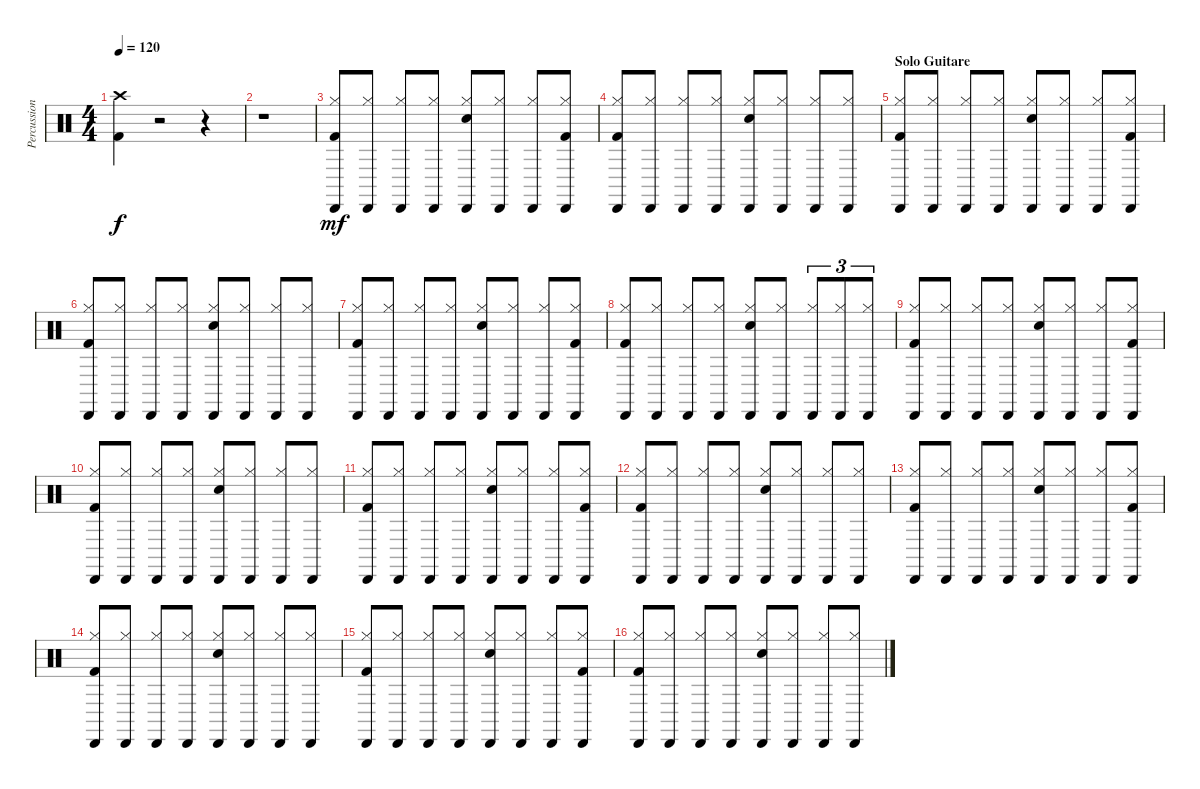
\track ("Percussions" "Percussion") {instrument percussion}
\staff {score}
\articulation defaults
\ts (4 4)
\tempo 120
\clef neutral
\ks c
("Crash high (hit)" "Kick (hit) 2").4{dy f} r.2 r.4 |
r.1 |
("Kick (hit) 2" "Cabasa (hit)" "Hi-Hat (closed)").8{dy mf} ("Cabasa (hit)" "Hi-Hat (closed)").8 ("Cabasa (hit)" "Hi-Hat (closed)").8 ("Cabasa (hit)" "Hi-Hat (closed)").8 ("Electric Snare (hit)" "Cabasa (hit)" "Hi-Hat (closed)").8 ("Cabasa (hit)" "Hi-Hat (closed)").8 ("Cabasa (hit)" "Hi-Hat (closed)").8 ("Kick (hit) 2" "Cabasa (hit)" "Hi-Hat (closed)").8 |
("Kick (hit) 2" "Cabasa (hit)" "Hi-Hat (closed)").8 ("Cabasa (hit)" "Hi-Hat (closed)").8 ("Cabasa (hit)" "Hi-Hat (closed)").8 ("Cabasa (hit)" "Hi-Hat (closed)").8 ("Electric Snare (hit)" "Cabasa (hit)" "Hi-Hat (closed)").8 ("Cabasa (hit)" "Hi-Hat (closed)").8 ("Cabasa (hit)" "Hi-Hat (closed)").8 ("Cabasa (hit)" "Hi-Hat (closed)").8 |
\section ("" "Solo Guitare")
("Kick (hit) 2" "Cabasa (hit)" "Hi-Hat (closed)").8 ("Cabasa (hit)" "Hi-Hat (closed)").8 ("Cabasa (hit)" "Hi-Hat (closed)").8 ("Cabasa (hit)" "Hi-Hat (closed)").8 ("Electric Snare (hit)" "Cabasa (hit)" "Hi-Hat (closed)").8 ("Cabasa (hit)" "Hi-Hat (closed)").8 ("Cabasa (hit)" "Hi-Hat (closed)").8 ("Kick (hit) 2" "Cabasa (hit)" "Hi-Hat (closed)").8 |
("Kick (hit) 2" "Cabasa (hit)" "Hi-Hat (closed)").8 ("Cabasa (hit)" "Hi-Hat (closed)").8 ("Cabasa (hit)" "Hi-Hat (closed)").8 ("Cabasa (hit)" "Hi-Hat (closed)").8 ("Electric Snare (hit)" "Cabasa (hit)" "Hi-Hat (closed)").8 ("Cabasa (hit)" "Hi-Hat (closed)").8 ("Cabasa (hit)" "Hi-Hat (closed)").8 ("Cabasa (hit)" "Hi-Hat (closed)").8 |
("Kick (hit) 2" "Cabasa (hit)" "Hi-Hat (closed)").8 ("Cabasa (hit)" "Hi-Hat (closed)").8 ("Cabasa (hit)" "Hi-Hat (closed)").8 ("Cabasa (hit)" "Hi-Hat (closed)").8 ("Electric Snare (hit)" "Cabasa (hit)" "Hi-Hat (closed)").8 ("Cabasa (hit)" "Hi-Hat (closed)").8 ("Cabasa (hit)" "Hi-Hat (closed)").8 ("Kick (hit) 2" "Cabasa (hit)" "Hi-Hat (closed)").8 |
("Kick (hit) 2" "Cabasa (hit)" "Hi-Hat (closed)").8 ("Cabasa (hit)" "Hi-Hat (closed)").8 ("Cabasa (hit)" "Hi-Hat (closed)").8 ("Cabasa (hit)" "Hi-Hat (closed)").8 ("Electric Snare (hit)" "Cabasa (hit)" "Hi-Hat (closed)").8 ("Cabasa (hit)" "Hi-Hat (closed)").8 ("Cabasa (hit)" "Hi-Hat (closed)").8{tu (3 2)} ("Cabasa (hit)" "Hi-Hat (closed)").8{tu (3 2)} ("Cabasa (hit)" "Hi-Hat (closed)").8{tu (3 2)} |
("Kick (hit) 2" "Cabasa (hit)" "Hi-Hat (closed)").8 ("Cabasa (hit)" "Hi-Hat (closed)").8 ("Cabasa (hit)" "Hi-Hat (closed)").8 ("Cabasa (hit)" "Hi-Hat (closed)").8 ("Electric Snare (hit)" "Cabasa (hit)" "Hi-Hat (closed)").8 ("Cabasa (hit)" "Hi-Hat (closed)").8 ("Cabasa (hit)" "Hi-Hat (closed)").8 ("Kick (hit) 2" "Cabasa (hit)" "Hi-Hat (closed)").8 |
("Kick (hit) 2" "Cabasa (hit)" "Hi-Hat (closed)").8 ("Cabasa (hit)" "Hi-Hat (closed)").8 ("Cabasa (hit)" "Hi-Hat (closed)").8 ("Cabasa (hit)" "Hi-Hat (closed)").8 ("Electric Snare (hit)" "Cabasa (hit)" "Hi-Hat (closed)").8 ("Cabasa (hit)" "Hi-Hat (closed)").8 ("Cabasa (hit)" "Hi-Hat (closed)").8 ("Cabasa (hit)" "Hi-Hat (closed)").8 |
("Kick (hit) 2" "Cabasa (hit)" "Hi-Hat (closed)").8 ("Cabasa (hit)" "Hi-Hat (closed)").8 ("Cabasa (hit)" "Hi-Hat (closed)").8 ("Cabasa (hit)" "Hi-Hat (closed)").8 ("Electric Snare (hit)" "Cabasa (hit)" "Hi-Hat (closed)").8 ("Cabasa (hit)" "Hi-Hat (closed)").8 ("Cabasa (hit)" "Hi-Hat (closed)").8 ("Kick (hit) 2" "Cabasa (hit)" "Hi-Hat (closed)").8 |
("Kick (hit) 2" "Cabasa (hit)" "Hi-Hat (closed)").8 ("Cabasa (hit)" "Hi-Hat (closed)").8 ("Cabasa (hit)" "Hi-Hat (closed)").8 ("Cabasa (hit)" "Hi-Hat (closed)").8 ("Electric Snare (hit)" "Cabasa (hit)" "Hi-Hat (closed)").8 ("Cabasa (hit)" "Hi-Hat (closed)").8 ("Cabasa (hit)" "Hi-Hat (closed)").8 ("Cabasa (hit)" "Hi-Hat (closed)").8 |
("Kick (hit) 2" "Cabasa (hit)" "Hi-Hat (closed)").8 ("Cabasa (hit)" "Hi-Hat (closed)").8 ("Cabasa (hit)" "Hi-Hat (closed)").8 ("Cabasa (hit)" "Hi-Hat (closed)").8 ("Electric Snare (hit)" "Cabasa (hit)" "Hi-Hat (closed)").8 ("Cabasa (hit)" "Hi-Hat (closed)").8 ("Cabasa (hit)" "Hi-Hat (closed)").8 ("Kick (hit) 2" "Cabasa (hit)" "Hi-Hat (closed)").8 |
("Kick (hit) 2" "Cabasa (hit)" "Hi-Hat (closed)").8 ("Cabasa (hit)" "Hi-Hat (closed)").8 ("Cabasa (hit)" "Hi-Hat (closed)").8 ("Cabasa (hit)" "Hi-Hat (closed)").8 ("Electric Snare (hit)" "Cabasa (hit)" "Hi-Hat (closed)").8 ("Cabasa (hit)" "Hi-Hat (closed)").8 ("Cabasa (hit)" "Hi-Hat (closed)").8 ("Cabasa (hit)" "Hi-Hat (closed)").8 |
("Kick (hit) 2" "Cabasa (hit)" "Hi-Hat (closed)").8 ("Cabasa (hit)" "Hi-Hat (closed)").8 ("Cabasa (hit)" "Hi-Hat (closed)").8 ("Cabasa (hit)" "Hi-Hat (closed)").8 ("Electric Snare (hit)" "Cabasa (hit)" "Hi-Hat (closed)").8 ("Cabasa (hit)" "Hi-Hat (closed)").8 ("Cabasa (hit)" "Hi-Hat (closed)").8 ("Kick (hit) 2" "Cabasa (hit)" "Hi-Hat (closed)").8 |
("Kick (hit) 2" "Cabasa (hit)" "Hi-Hat (closed)").8 ("Cabasa (hit)" "Hi-Hat (closed)").8 ("Cabasa (hit)" "Hi-Hat (closed)").8 ("Cabasa (hit)" "Hi-Hat (closed)").8 ("Electric Snare (hit)" "Cabasa (hit)" "Hi-Hat (closed)").8 ("Cabasa (hit)" "Hi-Hat (closed)").8 ("Cabasa (hit)" "Hi-Hat (closed)").8 ("Cabasa (hit)" "Hi-Hat (closed)").8
